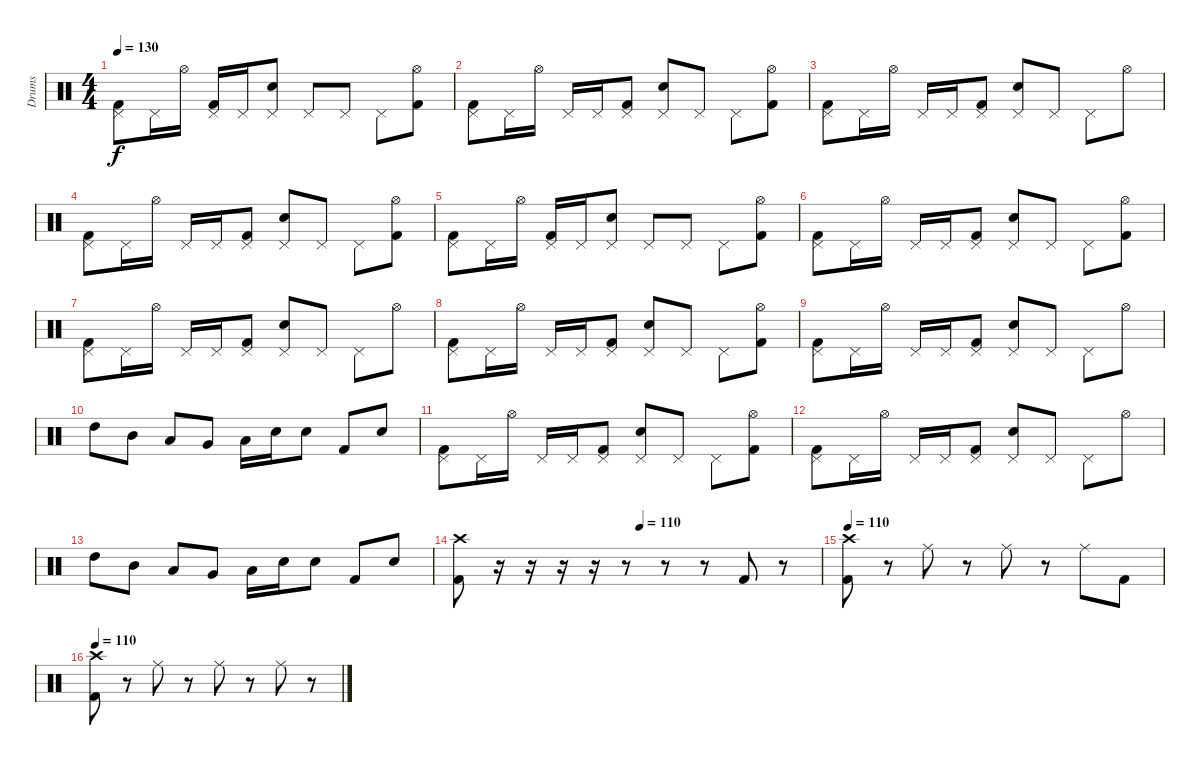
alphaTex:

\track ("Drums" "Drums") {instrument percussion}
\staff {score}
\articulation defaults
\ts (4 4)
\tempo 130
\clef neutral
\ks c
("Pedal Hi-Hat (hit)" "Kick (hit) 2").8{dy f} "Pedal Hi-Hat (hit)".16 "Hi-Hat (open)".16 ("Pedal Hi-Hat (hit)" "Kick (hit) 2").16 "Pedal Hi-Hat (hit)".16 ("Pedal Hi-Hat (hit)" "Electric Snare (hit)").8 "Pedal Hi-Hat (hit)".8 "Pedal Hi-Hat (hit)".8 "Pedal Hi-Hat (hit)".8 ("Hi-Hat (open)" "Kick (hit) 2").8 |
("Pedal Hi-Hat (hit)" "Kick (hit) 2").8 "Pedal Hi-Hat (hit)".16 "Hi-Hat (open)".16 "Pedal Hi-Hat (hit)".16 "Pedal Hi-Hat (hit)".16 ("Pedal Hi-Hat (hit)" "Kick (hit) 2").8 ("Pedal Hi-Hat (hit)" "Electric Snare (hit)").8 "Pedal Hi-Hat (hit)".8 "Pedal Hi-Hat (hit)".8 ("Hi-Hat (open)" "Kick (hit) 2").8 |
("Pedal Hi-Hat (hit)" "Kick (hit) 2").8 "Pedal Hi-Hat (hit)".16 "Hi-Hat (open)".16 "Pedal Hi-Hat (hit)".16 "Pedal Hi-Hat (hit)".16 ("Pedal Hi-Hat (hit)" "Kick (hit) 2").8 ("Pedal Hi-Hat (hit)" "Electric Snare (hit)").8 "Pedal Hi-Hat (hit)".8 "Pedal Hi-Hat (hit)".8 "Hi-Hat (open)".8 |
("Pedal Hi-Hat (hit)" "Kick (hit) 2").8 "Pedal Hi-Hat (hit)".16 "Hi-Hat (open)".16 "Pedal Hi-Hat (hit)".16 "Pedal Hi-Hat (hit)".16 ("Pedal Hi-Hat (hit)" "Kick (hit) 2").8 ("Pedal Hi-Hat (hit)" "Electric Snare (hit)").8 "Pedal Hi-Hat (hit)".8 "Pedal Hi-Hat (hit)".8 ("Hi-Hat (open)" "Kick (hit) 2").8 |
("Pedal Hi-Hat (hit)" "Kick (hit) 2").8 "Pedal Hi-Hat (hit)".16 "Hi-Hat (open)".16 ("Pedal Hi-Hat (hit)" "Kick (hit) 2").16 "Pedal Hi-Hat (hit)".16 ("Pedal Hi-Hat (hit)" "Electric Snare (hit)").8 "Pedal Hi-Hat (hit)".8 "Pedal Hi-Hat (hit)".8 "Pedal Hi-Hat (hit)".8 ("Hi-Hat (open)" "Kick (hit) 2").8 |
("Pedal Hi-Hat (hit)" "Kick (hit) 2").8 "Pedal Hi-Hat (hit)".16 "Hi-Hat (open)".16 "Pedal Hi-Hat (hit)".16 "Pedal Hi-Hat (hit)".16 ("Pedal Hi-Hat (hit)" "Kick (hit) 2").8 ("Pedal Hi-Hat (hit)" "Electric Snare (hit)").8 "Pedal Hi-Hat (hit)".8 "Pedal Hi-Hat (hit)".8 ("Hi-Hat (open)" "Kick (hit) 2").8 |
("Pedal Hi-Hat (hit)" "Kick (hit) 2").8 "Pedal Hi-Hat (hit)".16 "Hi-Hat (open)".16 "Pedal Hi-Hat (hit)".16 "Pedal Hi-Hat (hit)".16 ("Pedal Hi-Hat (hit)" "Kick (hit) 2").8 ("Pedal Hi-Hat (hit)" "Electric Snare (hit)").8 "Pedal Hi-Hat (hit)".8 "Pedal Hi-Hat (hit)".8 "Hi-Hat (open)".8 |
("Pedal Hi-Hat (hit)" "Kick (hit) 2").8 "Pedal Hi-Hat (hit)".16 "Hi-Hat (open)".16 "Pedal Hi-Hat (hit)".16 "Pedal Hi-Hat (hit)".16 ("Pedal Hi-Hat (hit)" "Kick (hit) 2").8 ("Pedal Hi-Hat (hit)" "Electric Snare (hit)").8 "Pedal Hi-Hat (hit)".8 "Pedal Hi-Hat (hit)".8 ("Hi-Hat (open)" "Kick (hit) 2").8 |
("Pedal Hi-Hat (hit)" "Kick (hit) 2").8 "Pedal Hi-Hat (hit)".16 "Hi-Hat (open)".16 "Pedal Hi-Hat (hit)".16 "Pedal Hi-Hat (hit)".16 ("Pedal Hi-Hat (hit)" "Kick (hit) 2").8 ("Pedal Hi-Hat (hit)" "Electric Snare (hit)").8 "Pedal Hi-Hat (hit)".8 "Pedal Hi-Hat (hit)".8 "Hi-Hat (open)".8 |
"High Tom (hit)".8 "Mid Tom (hit)".8 "Low Tom (hit)".8 "Very Low Tom (hit)".8 "Low Floor Tom (hit)".16 "Electric Snare (hit)".16 "Electric Snare (hit)".8 "Kick (hit) 2".8 "Electric Snare (hit)".8 |
("Pedal Hi-Hat (hit)" "Kick (hit) 2").8 "Pedal Hi-Hat (hit)".16 "Hi-Hat (open)".16 "Pedal Hi-Hat (hit)".16 "Pedal Hi-Hat (hit)".16 ("Pedal Hi-Hat (hit)" "Kick (hit) 2").8 ("Pedal Hi-Hat (hit)" "Electric Snare (hit)").8 "Pedal Hi-Hat (hit)".8 "Pedal Hi-Hat (hit)".8 ("Hi-Hat (open)" "Kick (hit) 2").8 |
("Pedal Hi-Hat (hit)" "Kick (hit) 2").8 "Pedal Hi-Hat (hit)".16 "Hi-Hat (open)".16 "Pedal Hi-Hat (hit)".16 "Pedal Hi-Hat (hit)".16 ("Pedal Hi-Hat (hit)" "Kick (hit) 2").8 ("Pedal Hi-Hat (hit)" "Electric Snare (hit)").8 "Pedal Hi-Hat (hit)".8 "Pedal Hi-Hat (hit)".8 "Hi-Hat (open)".8 |
"High Tom (hit)".8 "Mid Tom (hit)".8 "Low Tom (hit)".8 "Very Low Tom (hit)".8 "Low Floor Tom (hit)".16 "Electric Snare (hit)".16 "Electric Snare (hit)".8 "Kick (hit) 2".8 "Electric Snare (hit)".8 |
\tempo (110 0.5)
("Crash high (hit)" "Kick (hit) 2").8 r.16 r.16 r.16 r.16 r.8 r.8 r.8 "Kick (hit) 2".8 r.8 |
\tempo 110
("Kick (hit) 2" "Crash high (hit)").8 r.8 "Ride (middle)".8 r.8 "Ride (middle)".8 r.8 "Ride (middle)".8 "Kick (hit) 2".8 |
\tempo 110
("Kick (hit) 2" "Crash high (hit)").8 r.8 "Ride (middle)".8 r.8 "Ride (middle)".8 r.8 "Ride (middle)".8 r.8
